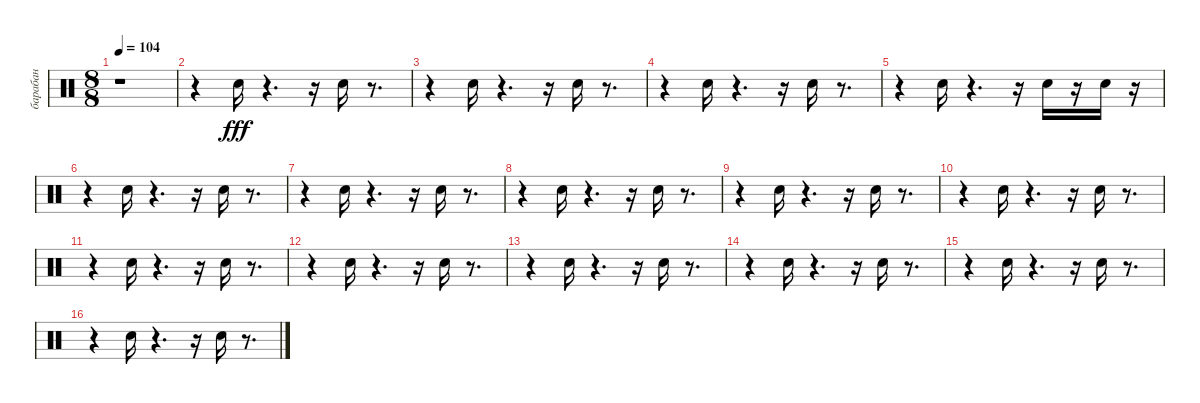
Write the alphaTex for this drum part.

\track ("барабан" "барабан") {instrument percussion}
\staff {score}
\articulation defaults
\ts (8 8)
\tempo 104
\clef neutral
\ks c
r.1{dy fff} |
r.4 "Snare (hit) 2".16 r.4{d} r.16 "Snare (hit) 2".16 r.8{d} |
r.4 "Snare (hit) 2".16 r.4{d} r.16 "Snare (hit) 2".16 r.8{d} |
r.4 "Snare (hit) 2".16 r.4{d} r.16 "Snare (hit) 2".16 r.8{d} |
r.4 "Snare (hit) 2".16 r.4{d} r.16 "Snare (hit) 2".16 r.16 "Snare (hit) 2".16 r.16 |
r.4 "Snare (hit) 2".16 r.4{d} r.16 "Snare (hit) 2".16 r.8{d} |
r.4 "Snare (hit) 2".16 r.4{d} r.16 "Snare (hit) 2".16 r.8{d} |
r.4 "Snare (hit) 2".16 r.4{d} r.16 "Snare (hit) 2".16 r.8{d} |
r.4 "Snare (hit) 2".16 r.4{d} r.16 "Snare (hit) 2".16 r.8{d} |
r.4 "Snare (hit) 2".16 r.4{d} r.16 "Snare (hit) 2".16 r.8{d} |
r.4 "Snare (hit) 2".16 r.4{d} r.16 "Snare (hit) 2".16 r.8{d} |
r.4 "Snare (hit) 2".16 r.4{d} r.16 "Snare (hit) 2".16 r.8{d} |
r.4 "Snare (hit) 2".16 r.4{d} r.16 "Snare (hit) 2".16 r.8{d} |
r.4 "Snare (hit) 2".16 r.4{d} r.16 "Snare (hit) 2".16 r.8{d} |
r.4 "Snare (hit) 2".16 r.4{d} r.16 "Snare (hit) 2".16 r.8{d} |
r.4 "Snare (hit) 2".16 r.4{d} r.16 "Snare (hit) 2".16 r.8{d}
